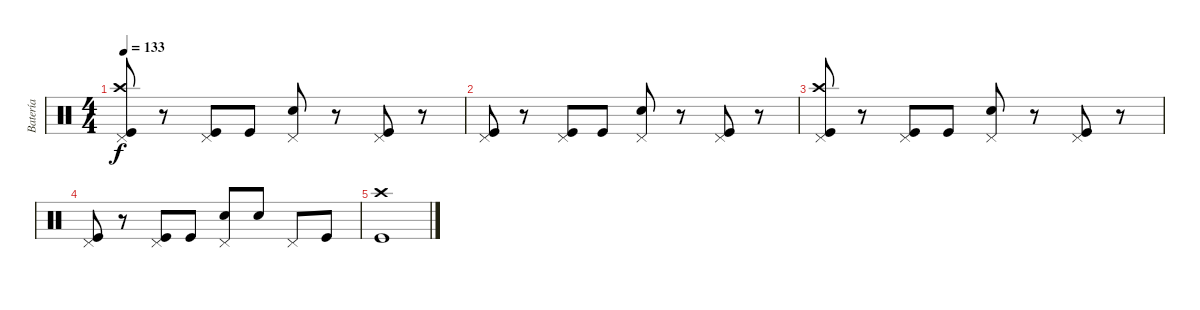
\track ("Batería" "Batería") {instrument percussion}
\staff {score}
\articulation defaults
\ts (4 4)
\tempo 133
\clef neutral
\ks c
("Pedal Hi-Hat (hit)" "Crash high (hit)" "Kick (hit)").8{dy f} r.8 ("Pedal Hi-Hat (hit)" "Kick (hit)").8 "Kick (hit)".8 ("Pedal Hi-Hat (hit)" "Snare (hit) 2").8 r.8 ("Pedal Hi-Hat (hit)" "Kick (hit)").8 r.8 |
("Pedal Hi-Hat (hit)" "Kick (hit)").8 r.8 ("Pedal Hi-Hat (hit)" "Kick (hit)").8 "Kick (hit)".8 ("Pedal Hi-Hat (hit)" "Snare (hit) 2").8 r.8 ("Pedal Hi-Hat (hit)" "Kick (hit)").8 r.8 |
("Pedal Hi-Hat (hit)" "Crash high (hit)" "Kick (hit)").8 r.8 ("Pedal Hi-Hat (hit)" "Kick (hit)").8 "Kick (hit)".8 ("Pedal Hi-Hat (hit)" "Snare (hit) 2").8 r.8 ("Pedal Hi-Hat (hit)" "Kick (hit)").8 r.8 |
("Pedal Hi-Hat (hit)" "Kick (hit)").8 r.8 ("Pedal Hi-Hat (hit)" "Kick (hit)").8 "Kick (hit)".8 ("Pedal Hi-Hat (hit)" "Snare (hit) 2").8 "Snare (hit) 2".8 "Pedal Hi-Hat (hit)".8 "Kick (hit)".8 |
("Crash high (hit)" "Kick (hit)").1
